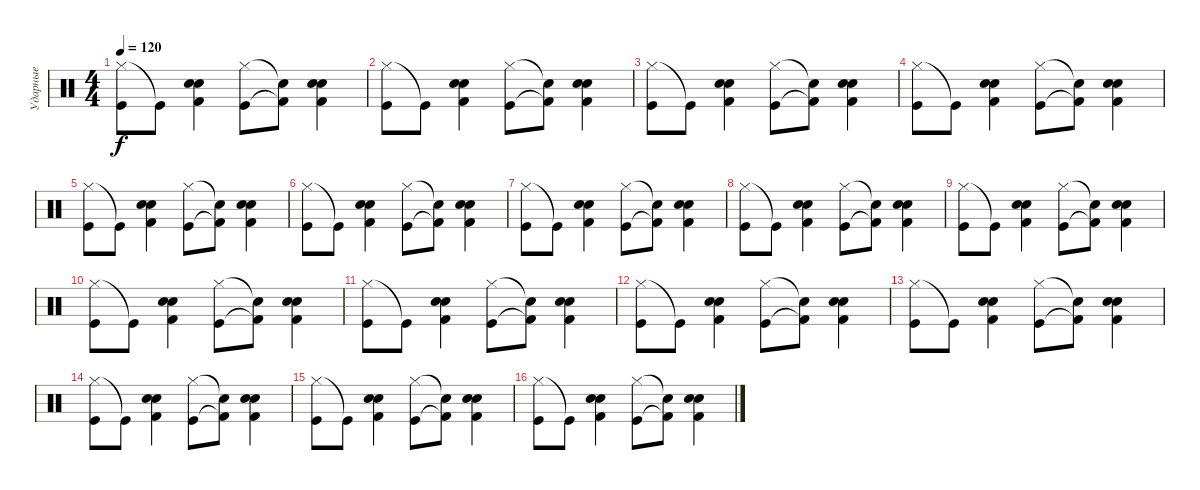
\track ("Ударные" "Ударные") {instrument percussion}
\staff {score}
\articulation defaults
\ts (4 4)
\tempo 120
\clef neutral
\ks c
("Hi-Hat (closed)" "Kick (hit)").8{dy f} "Kick (hit)"{t}.8 ("Snare (hit) 2" "Kick (hit) 2" "Electric Snare (hit)").4 ("Hi-Hat (closed)" "Kick (hit)").8 ("Snare (hit) 2"{t} "Kick (hit) 2"{t}).8 ("Snare (hit) 2" "Kick (hit) 2" "Electric Snare (hit)").4 |
("Hi-Hat (closed)" "Kick (hit)").8 "Kick (hit)"{t}.8 ("Snare (hit) 2" "Kick (hit) 2" "Electric Snare (hit)").4 ("Hi-Hat (closed)" "Kick (hit)").8 ("Snare (hit) 2"{t} "Kick (hit) 2"{t}).8 ("Snare (hit) 2" "Kick (hit) 2" "Electric Snare (hit)").4 |
("Hi-Hat (closed)" "Kick (hit)").8 "Kick (hit)"{t}.8 ("Snare (hit) 2" "Kick (hit) 2" "Electric Snare (hit)").4 ("Hi-Hat (closed)" "Kick (hit)").8 ("Snare (hit) 2"{t} "Kick (hit) 2"{t}).8 ("Snare (hit) 2" "Kick (hit) 2" "Electric Snare (hit)").4 |
("Hi-Hat (closed)" "Kick (hit)").8 "Kick (hit)"{t}.8 ("Snare (hit) 2" "Kick (hit) 2" "Electric Snare (hit)").4 ("Hi-Hat (closed)" "Kick (hit)").8 ("Snare (hit) 2"{t} "Kick (hit) 2"{t}).8 ("Snare (hit) 2" "Kick (hit) 2" "Electric Snare (hit)").4 |
("Hi-Hat (closed)" "Kick (hit)").8 "Kick (hit)"{t}.8 ("Snare (hit) 2" "Kick (hit) 2" "Electric Snare (hit)").4 ("Hi-Hat (closed)" "Kick (hit)").8 ("Snare (hit) 2"{t} "Kick (hit) 2"{t}).8 ("Snare (hit) 2" "Kick (hit) 2" "Electric Snare (hit)").4 |
("Hi-Hat (closed)" "Kick (hit)").8 "Kick (hit)"{t}.8 ("Snare (hit) 2" "Kick (hit) 2" "Electric Snare (hit)").4 ("Hi-Hat (closed)" "Kick (hit)").8 ("Snare (hit) 2"{t} "Kick (hit) 2"{t}).8 ("Snare (hit) 2" "Kick (hit) 2" "Electric Snare (hit)").4 |
("Hi-Hat (closed)" "Kick (hit)").8 "Kick (hit)"{t}.8 ("Snare (hit) 2" "Kick (hit) 2" "Electric Snare (hit)").4 ("Hi-Hat (closed)" "Kick (hit)").8 ("Snare (hit) 2"{t} "Kick (hit) 2"{t}).8 ("Snare (hit) 2" "Kick (hit) 2" "Electric Snare (hit)").4 |
("Hi-Hat (closed)" "Kick (hit)").8 "Kick (hit)"{t}.8 ("Snare (hit) 2" "Kick (hit) 2" "Electric Snare (hit)").4 ("Hi-Hat (closed)" "Kick (hit)").8 ("Snare (hit) 2"{t} "Kick (hit) 2"{t}).8 ("Snare (hit) 2" "Kick (hit) 2" "Electric Snare (hit)").4 |
("Hi-Hat (closed)" "Kick (hit)").8 "Kick (hit)"{t}.8 ("Snare (hit) 2" "Kick (hit) 2" "Electric Snare (hit)").4 ("Hi-Hat (closed)" "Kick (hit)").8 ("Snare (hit) 2"{t} "Kick (hit) 2"{t}).8 ("Snare (hit) 2" "Kick (hit) 2" "Electric Snare (hit)").4 |
("Hi-Hat (closed)" "Kick (hit)").8 "Kick (hit)"{t}.8 ("Snare (hit) 2" "Kick (hit) 2" "Electric Snare (hit)").4 ("Hi-Hat (closed)" "Kick (hit)").8 ("Snare (hit) 2"{t} "Kick (hit) 2"{t}).8 ("Snare (hit) 2" "Kick (hit) 2" "Electric Snare (hit)").4 |
("Hi-Hat (closed)" "Kick (hit)").8 "Kick (hit)"{t}.8 ("Snare (hit) 2" "Kick (hit) 2" "Electric Snare (hit)").4 ("Hi-Hat (closed)" "Kick (hit)").8 ("Snare (hit) 2"{t} "Kick (hit) 2"{t}).8 ("Snare (hit) 2" "Kick (hit) 2" "Electric Snare (hit)").4 |
("Hi-Hat (closed)" "Kick (hit)").8 "Kick (hit)"{t}.8 ("Snare (hit) 2" "Kick (hit) 2" "Electric Snare (hit)").4 ("Hi-Hat (closed)" "Kick (hit)").8 ("Snare (hit) 2"{t} "Kick (hit) 2"{t}).8 ("Snare (hit) 2" "Kick (hit) 2" "Electric Snare (hit)").4 |
("Hi-Hat (closed)" "Kick (hit)").8 "Kick (hit)"{t}.8 ("Snare (hit) 2" "Kick (hit) 2" "Electric Snare (hit)").4 ("Hi-Hat (closed)" "Kick (hit)").8 ("Snare (hit) 2"{t} "Kick (hit) 2"{t}).8 ("Snare (hit) 2" "Kick (hit) 2" "Electric Snare (hit)").4 |
("Hi-Hat (closed)" "Kick (hit)").8 "Kick (hit)"{t}.8 ("Snare (hit) 2" "Kick (hit) 2" "Electric Snare (hit)").4 ("Hi-Hat (closed)" "Kick (hit)").8 ("Snare (hit) 2"{t} "Kick (hit) 2"{t}).8 ("Snare (hit) 2" "Kick (hit) 2" "Electric Snare (hit)").4 |
("Hi-Hat (closed)" "Kick (hit)").8 "Kick (hit)"{t}.8 ("Snare (hit) 2" "Kick (hit) 2" "Electric Snare (hit)").4 ("Hi-Hat (closed)" "Kick (hit)").8 ("Snare (hit) 2"{t} "Kick (hit) 2"{t}).8 ("Snare (hit) 2" "Kick (hit) 2" "Electric Snare (hit)").4 |
("Hi-Hat (closed)" "Kick (hit)").8 "Kick (hit)"{t}.8 ("Snare (hit) 2" "Kick (hit) 2" "Electric Snare (hit)").4 ("Hi-Hat (closed)" "Kick (hit)").8 ("Snare (hit) 2"{t} "Kick (hit) 2"{t}).8 ("Snare (hit) 2" "Kick (hit) 2" "Electric Snare (hit)").4
